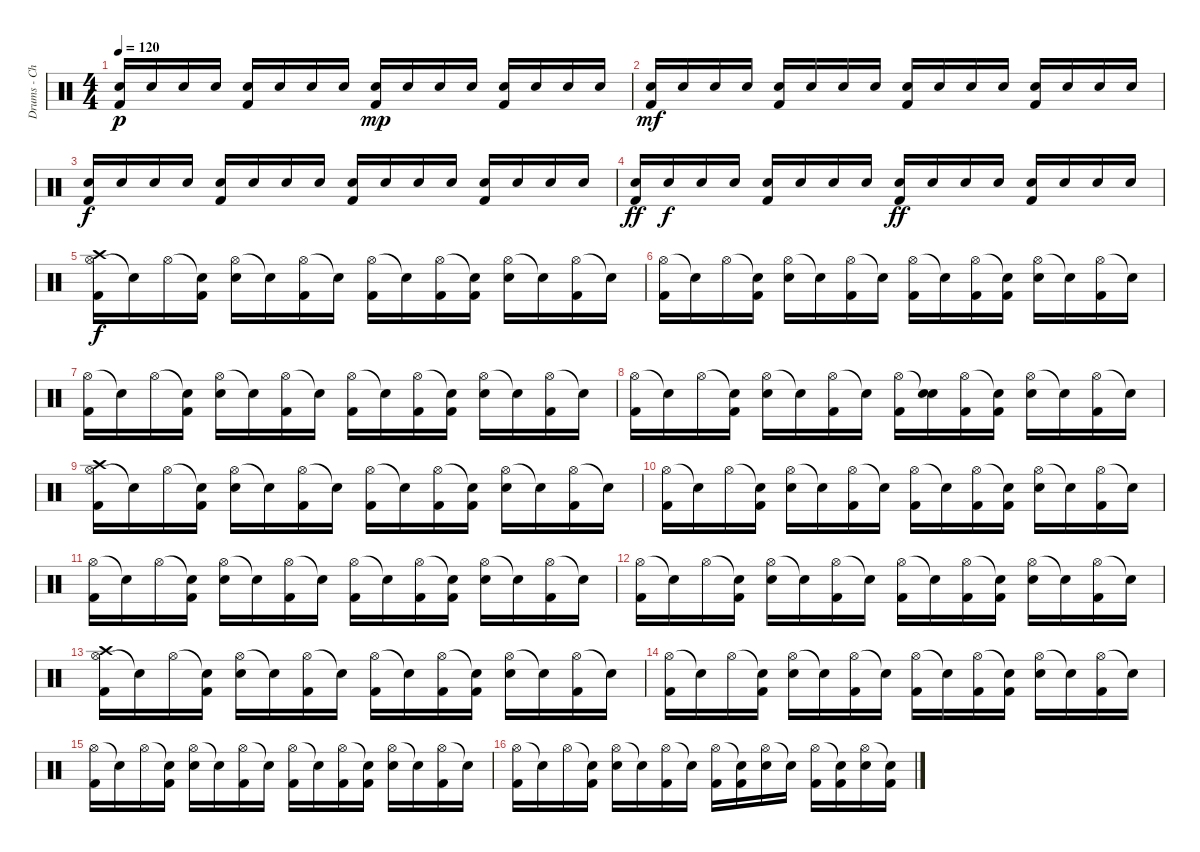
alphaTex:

\track ("Drums - Chad" "Drums - Ch") {instrument percussion}
\staff {score}
\articulation defaults
\ts (4 4)
\tempo 120
\clef neutral
\ks c
("Kick (hit) 2" "Electric Snare (hit)").16{dy p} "Electric Snare (hit)".16 "Electric Snare (hit)".16 "Electric Snare (hit)".16 ("Kick (hit) 2" "Electric Snare (hit)").16 "Electric Snare (hit)".16 "Electric Snare (hit)".16 "Electric Snare (hit)".16 ("Kick (hit) 2" "Electric Snare (hit)").16{dy mp} "Electric Snare (hit)".16 "Electric Snare (hit)".16 "Electric Snare (hit)".16 ("Kick (hit) 2" "Electric Snare (hit)").16 "Electric Snare (hit)".16 "Electric Snare (hit)".16 "Electric Snare (hit)".16 |
("Kick (hit) 2" "Electric Snare (hit)").16{dy mf} "Electric Snare (hit)".16 "Electric Snare (hit)".16 "Electric Snare (hit)".16 ("Kick (hit) 2" "Electric Snare (hit)").16 "Electric Snare (hit)".16 "Electric Snare (hit)".16 "Electric Snare (hit)".16 ("Kick (hit) 2" "Electric Snare (hit)").16 "Electric Snare (hit)".16 "Electric Snare (hit)".16 "Electric Snare (hit)".16 ("Kick (hit) 2" "Electric Snare (hit)").16 "Electric Snare (hit)".16 "Electric Snare (hit)".16 "Electric Snare (hit)".16 |
("Kick (hit) 2" "Electric Snare (hit)").16{dy f} "Electric Snare (hit)".16 "Electric Snare (hit)".16 "Electric Snare (hit)".16 ("Kick (hit) 2" "Electric Snare (hit)").16 "Electric Snare (hit)".16 "Electric Snare (hit)".16 "Electric Snare (hit)".16 ("Kick (hit) 2" "Electric Snare (hit)").16 "Electric Snare (hit)".16 "Electric Snare (hit)".16 "Electric Snare (hit)".16 ("Kick (hit) 2" "Electric Snare (hit)").16 "Electric Snare (hit)".16 "Electric Snare (hit)".16 "Electric Snare (hit)".16 |
("Kick (hit) 2" "Electric Snare (hit)").16{dy ff} "Electric Snare (hit)".16{dy f} "Electric Snare (hit)".16 "Electric Snare (hit)".16 ("Kick (hit) 2" "Electric Snare (hit)").16 "Electric Snare (hit)".16 "Electric Snare (hit)".16 "Electric Snare (hit)".16 ("Kick (hit) 2" "Electric Snare (hit)").16{dy ff} "Electric Snare (hit)".16 "Electric Snare (hit)".16 "Electric Snare (hit)".16 ("Kick (hit) 2" "Electric Snare (hit)").16 "Electric Snare (hit)".16 "Electric Snare (hit)".16 "Electric Snare (hit)".16 |
("Hi-Hat (open)" "Kick (hit) 2" "Crash high (hit)").16{dy f volume 15} "Snare (hit)"{t}.16 "Hi-Hat (open)".16 ("Snare (hit)"{t} "Kick (hit) 2").16 ("Hi-Hat (open)" "Electric Snare (hit)").16 "Snare (hit)"{t}.16 ("Hi-Hat (open)" "Kick (hit) 2").16 "Snare (hit)"{t}.16 ("Hi-Hat (open)" "Kick (hit) 2").16 "Snare (hit)"{t}.16 ("Hi-Hat (open)" "Kick (hit) 2").16 ("Snare (hit)"{t} "Kick (hit) 2").16 ("Hi-Hat (open)" "Electric Snare (hit)").16 "Snare (hit)"{t}.16 ("Hi-Hat (open)" "Kick (hit) 2").16 "Snare (hit)"{t}.16 |
("Hi-Hat (open)" "Kick (hit) 2").16 "Snare (hit)"{t}.16 "Hi-Hat (open)".16 ("Snare (hit)"{t} "Kick (hit) 2").16 ("Hi-Hat (open)" "Electric Snare (hit)").16 "Snare (hit)"{t}.16 ("Hi-Hat (open)" "Kick (hit) 2").16 "Snare (hit)"{t}.16 ("Hi-Hat (open)" "Kick (hit) 2").16 "Snare (hit)"{t}.16 ("Hi-Hat (open)" "Kick (hit) 2").16 ("Snare (hit)"{t} "Kick (hit) 2").16 ("Hi-Hat (open)" "Electric Snare (hit)").16 "Snare (hit)"{t}.16 ("Hi-Hat (open)" "Kick (hit) 2").16 "Snare (hit)"{t}.16 |
("Hi-Hat (open)" "Kick (hit) 2").16 "Snare (hit)"{t}.16 "Hi-Hat (open)".16 ("Snare (hit)"{t} "Kick (hit) 2").16 ("Hi-Hat (open)" "Electric Snare (hit)").16 "Snare (hit)"{t}.16 ("Hi-Hat (open)" "Kick (hit) 2").16 "Snare (hit)"{t}.16 ("Hi-Hat (open)" "Kick (hit) 2").16 "Snare (hit)"{t}.16 ("Hi-Hat (open)" "Kick (hit) 2").16 ("Snare (hit)"{t} "Kick (hit) 2").16 ("Hi-Hat (open)" "Electric Snare (hit)").16 "Snare (hit)"{t}.16 ("Hi-Hat (open)" "Kick (hit) 2").16 "Snare (hit)"{t}.16 |
("Hi-Hat (open)" "Kick (hit) 2").16 "Snare (hit)"{t}.16 "Hi-Hat (open)".16 ("Snare (hit)"{t} "Kick (hit) 2").16 ("Hi-Hat (open)" "Electric Snare (hit)").16 "Snare (hit)"{t}.16 ("Hi-Hat (open)" "Kick (hit) 2").16 "Snare (hit)"{t}.16 ("Hi-Hat (open)" "Kick (hit) 2").16 ("Snare (hit)"{t} "Electric Snare (hit)").16 ("Hi-Hat (open)" "Kick (hit) 2").16 ("Snare (hit)"{t} "Kick (hit) 2").16 ("Hi-Hat (open)" "Electric Snare (hit)").16 "Snare (hit)"{t}.16 ("Hi-Hat (open)" "Kick (hit) 2").16 "Snare (hit)"{t}.16 |
("Hi-Hat (open)" "Kick (hit) 2" "Crash high (hit)").16 "Snare (hit)"{t}.16 "Hi-Hat (open)".16 ("Snare (hit)"{t} "Kick (hit) 2").16 ("Hi-Hat (open)" "Electric Snare (hit)").16 "Snare (hit)"{t}.16 ("Hi-Hat (open)" "Kick (hit) 2").16 "Snare (hit)"{t}.16 ("Hi-Hat (open)" "Kick (hit) 2").16 "Snare (hit)"{t}.16 ("Hi-Hat (open)" "Kick (hit) 2").16 ("Snare (hit)"{t} "Kick (hit) 2").16 ("Hi-Hat (open)" "Electric Snare (hit)").16 "Snare (hit)"{t}.16 ("Hi-Hat (open)" "Kick (hit) 2").16 "Snare (hit)"{t}.16 |
("Hi-Hat (open)" "Kick (hit) 2").16 "Snare (hit)"{t}.16 "Hi-Hat (open)".16 ("Snare (hit)"{t} "Kick (hit) 2").16 ("Hi-Hat (open)" "Electric Snare (hit)").16 "Snare (hit)"{t}.16 ("Hi-Hat (open)" "Kick (hit) 2").16 "Snare (hit)"{t}.16 ("Hi-Hat (open)" "Kick (hit) 2").16 "Snare (hit)"{t}.16 ("Hi-Hat (open)" "Kick (hit) 2").16 ("Snare (hit)"{t} "Kick (hit) 2").16 ("Hi-Hat (open)" "Electric Snare (hit)").16 "Snare (hit)"{t}.16 ("Hi-Hat (open)" "Kick (hit) 2").16 "Snare (hit)"{t}.16 |
("Hi-Hat (open)" "Kick (hit) 2").16 "Snare (hit)"{t}.16 "Hi-Hat (open)".16 ("Snare (hit)"{t} "Kick (hit) 2").16 ("Hi-Hat (open)" "Electric Snare (hit)").16 "Snare (hit)"{t}.16 ("Hi-Hat (open)" "Kick (hit) 2").16 "Snare (hit)"{t}.16 ("Hi-Hat (open)" "Kick (hit) 2").16 "Snare (hit)"{t}.16 ("Hi-Hat (open)" "Kick (hit) 2").16 ("Snare (hit)"{t} "Kick (hit) 2").16 ("Hi-Hat (open)" "Electric Snare (hit)").16 "Snare (hit)"{t}.16 ("Hi-Hat (open)" "Kick (hit) 2").16 "Snare (hit)"{t}.16 |
("Hi-Hat (open)" "Kick (hit) 2").16 "Snare (hit)"{t}.16 "Hi-Hat (open)".16 ("Snare (hit)"{t} "Kick (hit) 2").16 ("Hi-Hat (open)" "Electric Snare (hit)").16 "Snare (hit)"{t}.16 ("Hi-Hat (open)" "Kick (hit) 2").16 "Snare (hit)"{t}.16 ("Hi-Hat (open)" "Kick (hit) 2").16 "Snare (hit)"{t}.16 ("Hi-Hat (open)" "Kick (hit) 2").16 ("Snare (hit)"{t} "Kick (hit) 2").16 ("Hi-Hat (open)" "Electric Snare (hit)").16 "Snare (hit)"{t}.16 ("Hi-Hat (open)" "Kick (hit) 2").16 "Snare (hit)"{t}.16 |
("Hi-Hat (open)" "Kick (hit) 2" "Crash high (hit)").16 "Snare (hit)"{t}.16 "Hi-Hat (open)".16 ("Snare (hit)"{t} "Kick (hit) 2").16 ("Hi-Hat (open)" "Electric Snare (hit)").16 "Snare (hit)"{t}.16 ("Hi-Hat (open)" "Kick (hit) 2").16 "Snare (hit)"{t}.16 ("Hi-Hat (open)" "Kick (hit) 2").16 "Snare (hit)"{t}.16 ("Hi-Hat (open)" "Kick (hit) 2").16 ("Snare (hit)"{t} "Kick (hit) 2").16 ("Hi-Hat (open)" "Electric Snare (hit)").16 "Snare (hit)"{t}.16 ("Hi-Hat (open)" "Kick (hit) 2").16 "Snare (hit)"{t}.16 |
("Hi-Hat (open)" "Kick (hit) 2").16 "Snare (hit)"{t}.16 "Hi-Hat (open)".16 ("Snare (hit)"{t} "Kick (hit) 2").16 ("Hi-Hat (open)" "Electric Snare (hit)").16 "Snare (hit)"{t}.16 ("Hi-Hat (open)" "Kick (hit) 2").16 "Snare (hit)"{t}.16 ("Hi-Hat (open)" "Kick (hit) 2").16 "Snare (hit)"{t}.16 ("Hi-Hat (open)" "Kick (hit) 2").16 ("Snare (hit)"{t} "Kick (hit) 2").16 ("Hi-Hat (open)" "Electric Snare (hit)").16 "Snare (hit)"{t}.16 ("Hi-Hat (open)" "Kick (hit) 2").16 "Snare (hit)"{t}.16 |
("Hi-Hat (open)" "Kick (hit) 2").16 "Snare (hit)"{t}.16 "Hi-Hat (open)".16 ("Snare (hit)"{t} "Kick (hit) 2").16 ("Hi-Hat (open)" "Electric Snare (hit)").16 "Snare (hit)"{t}.16 ("Hi-Hat (open)" "Kick (hit) 2").16 "Snare (hit)"{t}.16 ("Hi-Hat (open)" "Kick (hit) 2").16 "Snare (hit)"{t}.16 ("Hi-Hat (open)" "Kick (hit) 2").16 ("Snare (hit)"{t} "Kick (hit) 2").16 ("Hi-Hat (open)" "Electric Snare (hit)").16 "Snare (hit)"{t}.16 ("Hi-Hat (open)" "Kick (hit) 2").16 "Snare (hit)"{t}.16 |
("Hi-Hat (open)" "Kick (hit) 2").16 "Snare (hit)"{t}.16 "Hi-Hat (open)".16 ("Snare (hit)"{t} "Kick (hit) 2").16 ("Hi-Hat (open)" "Electric Snare (hit)").16 "Snare (hit)"{t}.16 ("Hi-Hat (open)" "Kick (hit) 2").16 "Snare (hit)"{t}.16 ("Hi-Hat (open)" "Kick (hit) 2").16 ("Snare (hit)"{t} "Kick (hit) 2").16 ("Hi-Hat (open)" "Electric Snare (hit)").16 "Snare (hit)"{t}.16 ("Hi-Hat (open)" "Kick (hit) 2").16 ("Snare (hit)"{t} "Kick (hit) 2").16 ("Hi-Hat (open)" "Electric Snare (hit)").16 ("Snare (hit)"{t} "Kick (hit) 2").16
